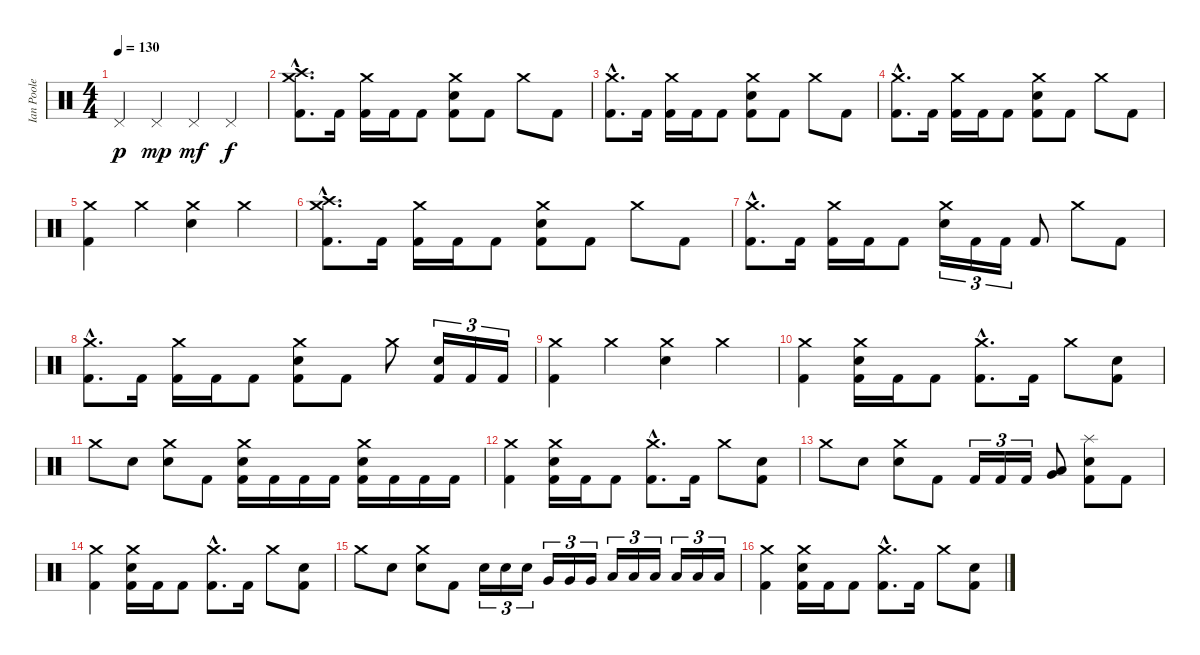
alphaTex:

\track ("Ian Poole" "Ian Poole") {instrument percussion}
\staff {score}
\articulation defaults
\ts (4 4)
\tempo 130
\clef neutral
\ks c "Pedal Hi-Hat (hit)".4{dy p} "Pedal Hi-Hat (hit)".4{dy mp} "Pedal Hi-Hat (hit)".4{dy mf} "Pedal Hi-Hat (hit)".4{dy f}
|
("Crash medium (hit)"{hac} "Crash high (hit)"{hac} "Kick (hit) 2"{hac}).8{d} "Kick (hit) 2".16 ("Crash medium (hit)" "Kick (hit) 2").16 "Kick (hit) 2".16 "Kick (hit) 2".8 ("Crash medium (hit)" "Electric Snare (hit)" "Kick (hit) 2").8 "Kick (hit) 2".8 "Crash medium (hit)".8 "Kick (hit) 2".8 |
("Crash medium (hit)"{hac} "Kick (hit) 2"{hac}).8{d} "Kick (hit) 2".16 ("Crash medium (hit)" "Kick (hit) 2").16 "Kick (hit) 2".16 "Kick (hit) 2".8 ("Crash medium (hit)" "Electric Snare (hit)" "Kick (hit) 2").8 "Kick (hit) 2".8 "Crash medium (hit)".8 "Kick (hit) 2".8 |
("Crash medium (hit)"{hac} "Kick (hit) 2"{hac}).8{d} "Kick (hit) 2".16 ("Crash medium (hit)" "Kick (hit) 2").16 "Kick (hit) 2".16 "Kick (hit) 2".8 ("Crash medium (hit)" "Electric Snare (hit)" "Kick (hit) 2").8 "Kick (hit) 2".8 "Crash medium (hit)".8 "Kick (hit) 2".8 |
("Crash medium (hit)" "Kick (hit) 2").4 "Crash medium (hit)".4 ("Crash medium (hit)" "Electric Snare (hit)").4 "Crash medium (hit)".4 |
("Crash medium (hit)"{hac} "Crash high (hit)"{hac} "Kick (hit) 2"{hac}).8{d} "Kick (hit) 2".16 ("Crash medium (hit)" "Kick (hit) 2").16 "Kick (hit) 2".16 "Kick (hit) 2".8 ("Crash medium (hit)" "Electric Snare (hit)" "Kick (hit) 2").8 "Kick (hit) 2".8 "Crash medium (hit)".8 "Kick (hit) 2".8 |
("Crash medium (hit)"{hac} "Kick (hit) 2"{hac}).8{d} "Kick (hit) 2".16 ("Crash medium (hit)" "Kick (hit) 2").16 "Kick (hit) 2".16 "Kick (hit) 2".8 ("Crash medium (hit)" "Electric Snare (hit)").16{tu (3 2)} "Kick (hit) 2".16{tu (3 2)} "Kick (hit) 2".16{tu (3 2)} "Kick (hit) 2".8 "Crash medium (hit)".8 "Kick (hit) 2".8 |
("Crash medium (hit)"{hac} "Kick (hit) 2"{hac}).8{d} "Kick (hit) 2".16 ("Crash medium (hit)" "Kick (hit) 2").16 "Kick (hit) 2".16 "Kick (hit) 2".8 ("Crash medium (hit)" "Electric Snare (hit)" "Kick (hit) 2").8 "Kick (hit) 2".8 "Crash medium (hit)".8 ("Electric Snare (hit)" "Kick (hit) 2").16{tu (3 2)} "Kick (hit) 2".16{tu (3 2)} "Kick (hit) 2".16{tu (3 2)} |
("Crash medium (hit)" "Kick (hit) 2").4 "Crash medium (hit)".4 ("Crash medium (hit)" "Electric Snare (hit)").4 "Crash medium (hit)".4 |
("Crash medium (hit)" "Kick (hit) 2").4 ("Crash medium (hit)" "Electric Snare (hit)" "Kick (hit) 2").16 "Kick (hit) 2".16 "Kick (hit) 2".8 ("Crash medium (hit)"{hac} "Kick (hit) 2"{hac}).8{d} "Kick (hit) 2".16 "Crash medium (hit)".8 ("Electric Snare (hit)" "Kick (hit) 2").8 |
"Crash medium (hit)".8 "Electric Snare (hit)".8 ("Crash medium (hit)" "Electric Snare (hit)").8 "Kick (hit) 2".8 ("Crash medium (hit)" "Electric Snare (hit)" "Kick (hit) 2").16 "Kick (hit) 2".16 "Kick (hit) 2".16 "Kick (hit) 2".16 ("Crash medium (hit)" "Electric Snare (hit)" "Kick (hit) 2").16 "Kick (hit) 2".16 "Kick (hit) 2".16 "Kick (hit) 2".16 |
("Crash medium (hit)" "Kick (hit) 2").4 ("Crash medium (hit)" "Electric Snare (hit)" "Kick (hit) 2").16 "Kick (hit) 2".16 "Kick (hit) 2".8 ("Crash medium (hit)"{hac} "Kick (hit) 2"{hac}).8{d} "Kick (hit) 2".16 "Crash medium (hit)".8 ("Electric Snare (hit)" "Kick (hit) 2").8 |
"Crash medium (hit)".8 "Electric Snare (hit)".8 ("Crash medium (hit)" "Electric Snare (hit)").8 "Kick (hit) 2".8 "Kick (hit) 2".16{tu (3 2)} "Kick (hit) 2".16{tu (3 2)} "Kick (hit) 2".16{tu (3 2)} ("Very Low Tom (hit)" "Low Floor Tom (hit)").8 ("Splash (hit)" "Electric Snare (hit)" "Kick (hit) 2").8 "Kick (hit) 2".8 |
("Crash medium (hit)" "Kick (hit) 2").4 ("Crash medium (hit)" "Electric Snare (hit)" "Kick (hit) 2").16 "Kick (hit) 2".16 "Kick (hit) 2".8 ("Crash medium (hit)"{hac} "Kick (hit) 2"{hac}).8{d} "Kick (hit) 2".16 "Crash medium (hit)".8 ("Electric Snare (hit)" "Kick (hit) 2").8 |
"Crash medium (hit)".8 "Electric Snare (hit)".8 ("Crash medium (hit)" "Electric Snare (hit)").8 "Kick (hit) 2".8 "Electric Snare (hit)".16{tu (3 2)} "Electric Snare (hit)".16{tu (3 2)} "Electric Snare (hit)".16{tu (3 2)} "Very Low Tom (hit)".16{tu (3 2)} "Very Low Tom (hit)".16{tu (3 2)} "Very Low Tom (hit)".16{tu (3 2)} "Low Tom (hit)".16{tu (3 2)} "Low Tom (hit)".16{tu (3 2)} "Low Tom (hit)".16{tu (3 2)} "Low Floor Tom (hit)".16{tu (3 2)} "Low Floor Tom (hit)".16{tu (3 2)} "Low Floor Tom (hit)".16{tu (3 2)} |
("Crash medium (hit)" "Kick (hit) 2").4 ("Crash medium (hit)" "Electric Snare (hit)" "Kick (hit) 2").16 "Kick (hit) 2".16 "Kick (hit) 2".8 ("Crash medium (hit)"{hac} "Kick (hit) 2"{hac}).8{d} "Kick (hit) 2".16 "Crash medium (hit)".8 ("Electric Snare (hit)" "Kick (hit) 2").8
